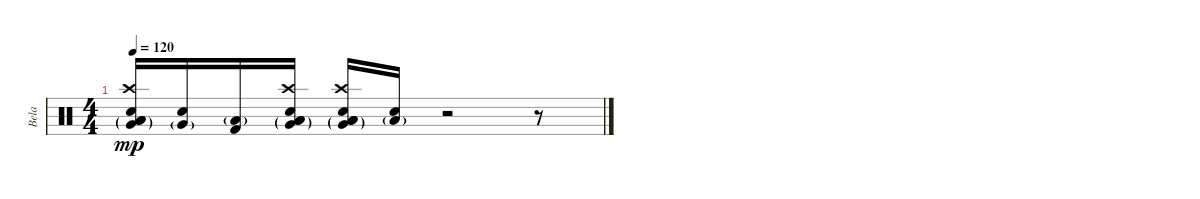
\track ("Bela" "Bela") {instrument percussion}
\staff {score}
\articulation defaults
\ts (4 4)
\tempo 120
\clef neutral
\ks c
("Very Low Tom (hit)"{g} "Low Floor Tom (hit)"{g} "Low Tom (hit)"{g} "Crash high (hit)" "Electric Snare (hit)").16{dy mp} ("Very Low Tom (hit)"{g} "Electric Snare (hit)").16 ("Low Floor Tom (hit)"{g} "Kick (hit) 2").16 ("Very Low Tom (hit)"{g} "Low Floor Tom (hit)"{g} "Low Tom (hit)"{g} "Crash high (hit)" "Snare (hit) 2").16 ("Very Low Tom (hit)"{g} "Low Floor Tom (hit)"{g} "Low Tom (hit)"{g} "Crash high (hit)" "Snare (hit) 2").16 ("Low Floor Tom (hit)"{g} "Snare (hit) 2").16 r.2 r.8
